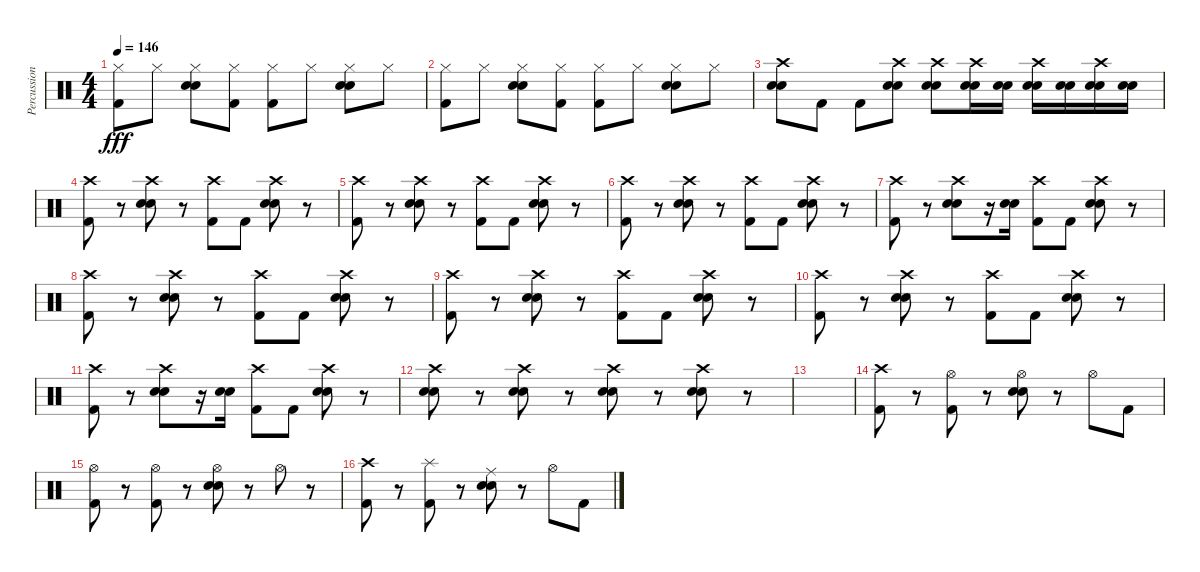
\track ("Percussion" "Percussion") {instrument percussion}
\staff {score}
\articulation defaults
\ts (4 4)
\tempo 146
\clef neutral
\ks c
("Hi-Hat (closed)" "Kick (hit) 2").8{dy fff} "Hi-Hat (closed)".8 ("Hi-Hat (closed)" "Snare (hit) 2" "Electric Snare (hit)").8 ("Hi-Hat (closed)" "Kick (hit) 2").8 ("Hi-Hat (closed)" "Kick (hit) 2").8 "Hi-Hat (closed)".8 ("Hi-Hat (closed)" "Snare (hit) 2" "Electric Snare (hit)").8 "Hi-Hat (closed)".8 |
("Hi-Hat (closed)" "Kick (hit) 2").8 "Hi-Hat (closed)".8 ("Hi-Hat (closed)" "Snare (hit) 2" "Electric Snare (hit)").8 ("Hi-Hat (closed)" "Kick (hit) 2").8 ("Hi-Hat (closed)" "Kick (hit) 2").8 "Hi-Hat (closed)".8 ("Hi-Hat (closed)" "Snare (hit) 2" "Electric Snare (hit)").8 "Hi-Hat (closed)".8 |
("Crash high (hit)" "Electric Snare (hit)" "Snare (hit) 2").8 "Kick (hit) 2".8 "Kick (hit) 2".8 ("Crash high (hit)" "Electric Snare (hit)" "Snare (hit) 2").8 ("Crash high (hit)" "Electric Snare (hit)" "Snare (hit) 2").8 ("Crash high (hit)" "Electric Snare (hit)" "Snare (hit) 2").16 ("Electric Snare (hit)" "Snare (hit) 2").16 ("Crash high (hit)" "Electric Snare (hit)" "Snare (hit) 2").16 ("Electric Snare (hit)" "Snare (hit) 2").16 ("Crash high (hit)" "Electric Snare (hit)" "Snare (hit) 2").16 ("Electric Snare (hit)" "Snare (hit) 2").16 |
("Crash high (hit)" "Kick (hit) 2").8 r.8 ("Crash high (hit)" "Electric Snare (hit)" "Snare (hit) 2").8 r.8 ("Crash high (hit)" "Kick (hit) 2").8 "Kick (hit) 2".8 ("Crash high (hit)" "Snare (hit) 2" "Electric Snare (hit)").8 r.8 |
("Crash high (hit)" "Kick (hit) 2").8 r.8 ("Crash high (hit)" "Electric Snare (hit)" "Snare (hit) 2").8 r.8 ("Crash high (hit)" "Kick (hit) 2").8 "Kick (hit) 2".8 ("Crash high (hit)" "Snare (hit) 2" "Electric Snare (hit)").8 r.8 |
("Crash high (hit)" "Kick (hit) 2").8 r.8 ("Crash high (hit)" "Electric Snare (hit)" "Snare (hit) 2").8 r.8 ("Crash high (hit)" "Kick (hit) 2").8 "Kick (hit) 2".8 ("Crash high (hit)" "Snare (hit) 2" "Electric Snare (hit)").8 r.8 |
("Crash high (hit)" "Kick (hit) 2").8 r.8 ("Crash high (hit)" "Electric Snare (hit)" "Snare (hit) 2").8 r.16 ("Electric Snare (hit)" "Snare (hit) 2").16 ("Crash high (hit)" "Kick (hit) 2").8 "Kick (hit) 2".8 ("Crash high (hit)" "Electric Snare (hit)" "Snare (hit) 2").8 r.8 |
("Crash high (hit)" "Kick (hit) 2").8 r.8 ("Crash high (hit)" "Electric Snare (hit)" "Snare (hit) 2").8 r.8 ("Crash high (hit)" "Kick (hit) 2").8 "Kick (hit) 2".8 ("Crash high (hit)" "Snare (hit) 2" "Electric Snare (hit)").8 r.8 |
("Crash high (hit)" "Kick (hit) 2").8 r.8 ("Crash high (hit)" "Electric Snare (hit)" "Snare (hit) 2").8 r.8 ("Crash high (hit)" "Kick (hit) 2").8 "Kick (hit) 2".8 ("Crash high (hit)" "Snare (hit) 2" "Electric Snare (hit)").8 r.8 |
("Crash high (hit)" "Kick (hit) 2").8 r.8 ("Crash high (hit)" "Electric Snare (hit)" "Snare (hit) 2").8 r.8 ("Crash high (hit)" "Kick (hit) 2").8 "Kick (hit) 2".8 ("Crash high (hit)" "Snare (hit) 2" "Electric Snare (hit)").8 r.8 |
("Crash high (hit)" "Kick (hit) 2").8 r.8 ("Crash high (hit)" "Electric Snare (hit)" "Snare (hit) 2").8 r.16 ("Electric Snare (hit)" "Snare (hit) 2").16 ("Crash high (hit)" "Kick (hit) 2").8 "Kick (hit) 2".8 ("Crash high (hit)" "Electric Snare (hit)" "Snare (hit) 2").8 r.8 |
("Crash high (hit)" "Electric Snare (hit)" "Snare (hit) 2").8 r.8 ("Crash high (hit)" "Electric Snare (hit)" "Snare (hit) 2").8 r.8 ("Crash high (hit)" "Electric Snare (hit)" "Snare (hit) 2").8 r.8 ("Crash high (hit)" "Electric Snare (hit)" "Snare (hit) 2").8 r.8 |
|
("Kick (hit) 2" "Crash high (hit)").8 r.8 ("Kick (hit) 2" "Hi-Hat (open)").8 r.8 ("Electric Snare (hit)" "Snare (hit) 2" "Hi-Hat (open)").8 r.8 "Hi-Hat (open)".8 "Kick (hit) 2".8 |
("Kick (hit) 2" "Hi-Hat (open)").8 r.8 ("Kick (hit) 2" "Hi-Hat (open)").8 r.8 ("Electric Snare (hit)" "Snare (hit) 2" "Hi-Hat (open)").8 r.8 "Hi-Hat (open)".8 r.8 |
("Kick (hit) 2" "Crash high (hit)").8 r.8 ("Kick (hit) 2" "Splash (hit)").8 r.8 ("Electric Snare (hit)" "Snare (hit) 2" "Ride (middle)").8 r.8 "Hi-Hat (open)".8 "Kick (hit) 2".8
